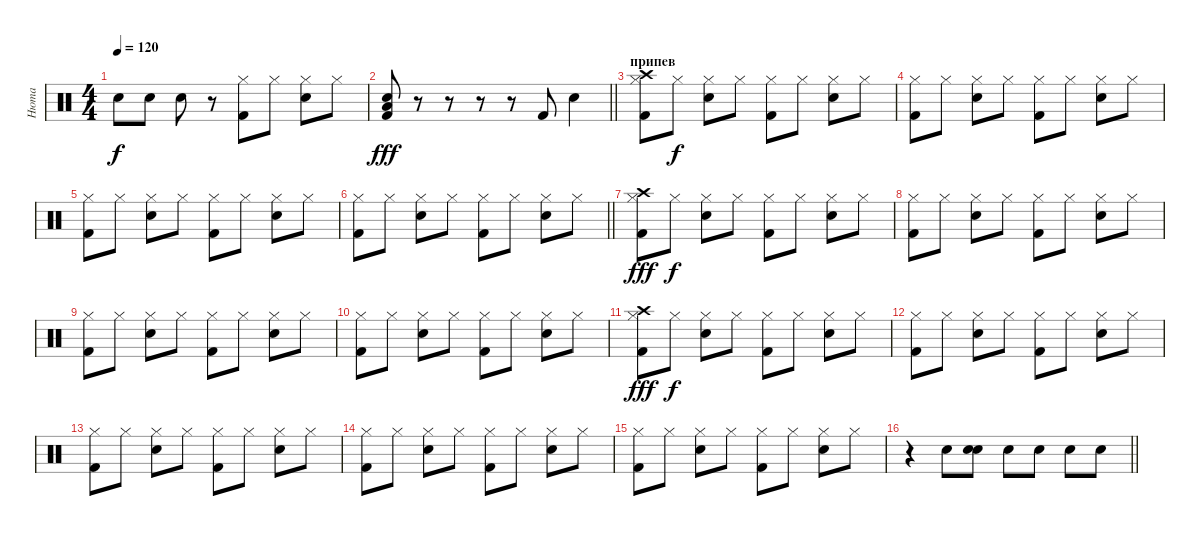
\track ("Нюта" "Нюта") {instrument percussion}
\staff {score}
\articulation defaults
\ts (4 4)
\tempo 120
\clef neutral
\ks c "Electric Snare (hit)".8{dy f} "Electric Snare (hit)".8 "Electric Snare (hit)".8
r.8 ("Hi-Hat (closed)" "Kick (hit) 2").8 "Hi-Hat (closed)".8 ("Hi-Hat (closed)" "Electric Snare (hit)").8 "Hi-Hat (closed)".8 |
\barLineRight lightlight
("Kick (hit) 2" "Low Floor Tom (hit)" "Snare (hit) 2").8{dy fff} r.8 r.8 r.8 r.8 "Kick (hit) 2".8 "Electric Snare (hit)".4 |
\section ("" "припев")
("Hi-Hat (closed)" "Kick (hit) 2" "Crash high (hit)").8 "Hi-Hat (closed)".8{dy f} ("Hi-Hat (closed)" "Electric Snare (hit)").8 "Hi-Hat (closed)".8 ("Hi-Hat (closed)" "Kick (hit) 2").8 "Hi-Hat (closed)".8 ("Hi-Hat (closed)" "Electric Snare (hit)").8 "Hi-Hat (closed)".8 |
("Hi-Hat (closed)" "Kick (hit) 2").8 "Hi-Hat (closed)".8 ("Hi-Hat (closed)" "Electric Snare (hit)").8 "Hi-Hat (closed)".8 ("Hi-Hat (closed)" "Kick (hit) 2").8 "Hi-Hat (closed)".8 ("Hi-Hat (closed)" "Electric Snare (hit)").8 "Hi-Hat (closed)".8 |
("Hi-Hat (closed)" "Kick (hit) 2").8 "Hi-Hat (closed)".8 ("Hi-Hat (closed)" "Electric Snare (hit)").8 "Hi-Hat (closed)".8 ("Hi-Hat (closed)" "Kick (hit) 2").8 "Hi-Hat (closed)".8 ("Hi-Hat (closed)" "Electric Snare (hit)").8 "Hi-Hat (closed)".8 |
\barLineRight lightlight
("Hi-Hat (closed)" "Kick (hit) 2").8 "Hi-Hat (closed)".8 ("Hi-Hat (closed)" "Electric Snare (hit)").8 "Hi-Hat (closed)".8 ("Hi-Hat (closed)" "Kick (hit) 2").8 "Hi-Hat (closed)".8 ("Hi-Hat (closed)" "Electric Snare (hit)").8 "Hi-Hat (closed)".8 |
("Hi-Hat (closed)" "Kick (hit) 2" "Crash high (hit)").8{dy fff} "Hi-Hat (closed)".8{dy f} ("Hi-Hat (closed)" "Electric Snare (hit)").8 "Hi-Hat (closed)".8 ("Hi-Hat (closed)" "Kick (hit) 2").8 "Hi-Hat (closed)".8 ("Hi-Hat (closed)" "Electric Snare (hit)").8 "Hi-Hat (closed)".8 |
("Hi-Hat (closed)" "Kick (hit) 2").8 "Hi-Hat (closed)".8 ("Hi-Hat (closed)" "Electric Snare (hit)").8 "Hi-Hat (closed)".8 ("Hi-Hat (closed)" "Kick (hit) 2").8 "Hi-Hat (closed)".8 ("Hi-Hat (closed)" "Electric Snare (hit)").8 "Hi-Hat (closed)".8 |
("Hi-Hat (closed)" "Kick (hit) 2").8 "Hi-Hat (closed)".8 ("Hi-Hat (closed)" "Electric Snare (hit)").8 "Hi-Hat (closed)".8 ("Hi-Hat (closed)" "Kick (hit) 2").8 "Hi-Hat (closed)".8 ("Hi-Hat (closed)" "Electric Snare (hit)").8 "Hi-Hat (closed)".8 |
("Hi-Hat (closed)" "Kick (hit) 2").8 "Hi-Hat (closed)".8 ("Hi-Hat (closed)" "Electric Snare (hit)").8 "Hi-Hat (closed)".8 ("Hi-Hat (closed)" "Kick (hit) 2").8 "Hi-Hat (closed)".8 ("Hi-Hat (closed)" "Electric Snare (hit)").8 "Hi-Hat (closed)".8 |
("Hi-Hat (closed)" "Kick (hit) 2" "Crash high (hit)").8{dy fff} "Hi-Hat (closed)".8{dy f} ("Hi-Hat (closed)" "Electric Snare (hit)").8 "Hi-Hat (closed)".8 ("Hi-Hat (closed)" "Kick (hit) 2").8 "Hi-Hat (closed)".8 ("Hi-Hat (closed)" "Electric Snare (hit)").8 "Hi-Hat (closed)".8 |
("Hi-Hat (closed)" "Kick (hit) 2").8 "Hi-Hat (closed)".8 ("Hi-Hat (closed)" "Electric Snare (hit)").8 "Hi-Hat (closed)".8 ("Hi-Hat (closed)" "Kick (hit) 2").8 "Hi-Hat (closed)".8 ("Hi-Hat (closed)" "Electric Snare (hit)").8 "Hi-Hat (closed)".8 |
("Hi-Hat (closed)" "Kick (hit) 2").8 "Hi-Hat (closed)".8 ("Hi-Hat (closed)" "Electric Snare (hit)").8 "Hi-Hat (closed)".8 ("Hi-Hat (closed)" "Kick (hit) 2").8 "Hi-Hat (closed)".8 ("Hi-Hat (closed)" "Electric Snare (hit)").8 "Hi-Hat (closed)".8 |
("Hi-Hat (closed)" "Kick (hit) 2").8 "Hi-Hat (closed)".8 ("Hi-Hat (closed)" "Electric Snare (hit)").8 "Hi-Hat (closed)".8 ("Hi-Hat (closed)" "Kick (hit) 2").8 "Hi-Hat (closed)".8 ("Hi-Hat (closed)" "Electric Snare (hit)").8 "Hi-Hat (closed)".8 |
("Hi-Hat (closed)" "Kick (hit) 2").8 "Hi-Hat (closed)".8 ("Hi-Hat (closed)" "Electric Snare (hit)").8 "Hi-Hat (closed)".8 ("Hi-Hat (closed)" "Kick (hit) 2").8 "Hi-Hat (closed)".8 ("Hi-Hat (closed)" "Electric Snare (hit)").8 "Hi-Hat (closed)".8 |
\barLineRight lightlight
r.4 "Snare (hit) 2".8 ("Snare (hit) 2" "Snare (hit) 2").8 "Snare (hit) 2".8 "Snare (hit) 2".8 "Snare (hit) 2".8 "Snare (hit) 2".8
